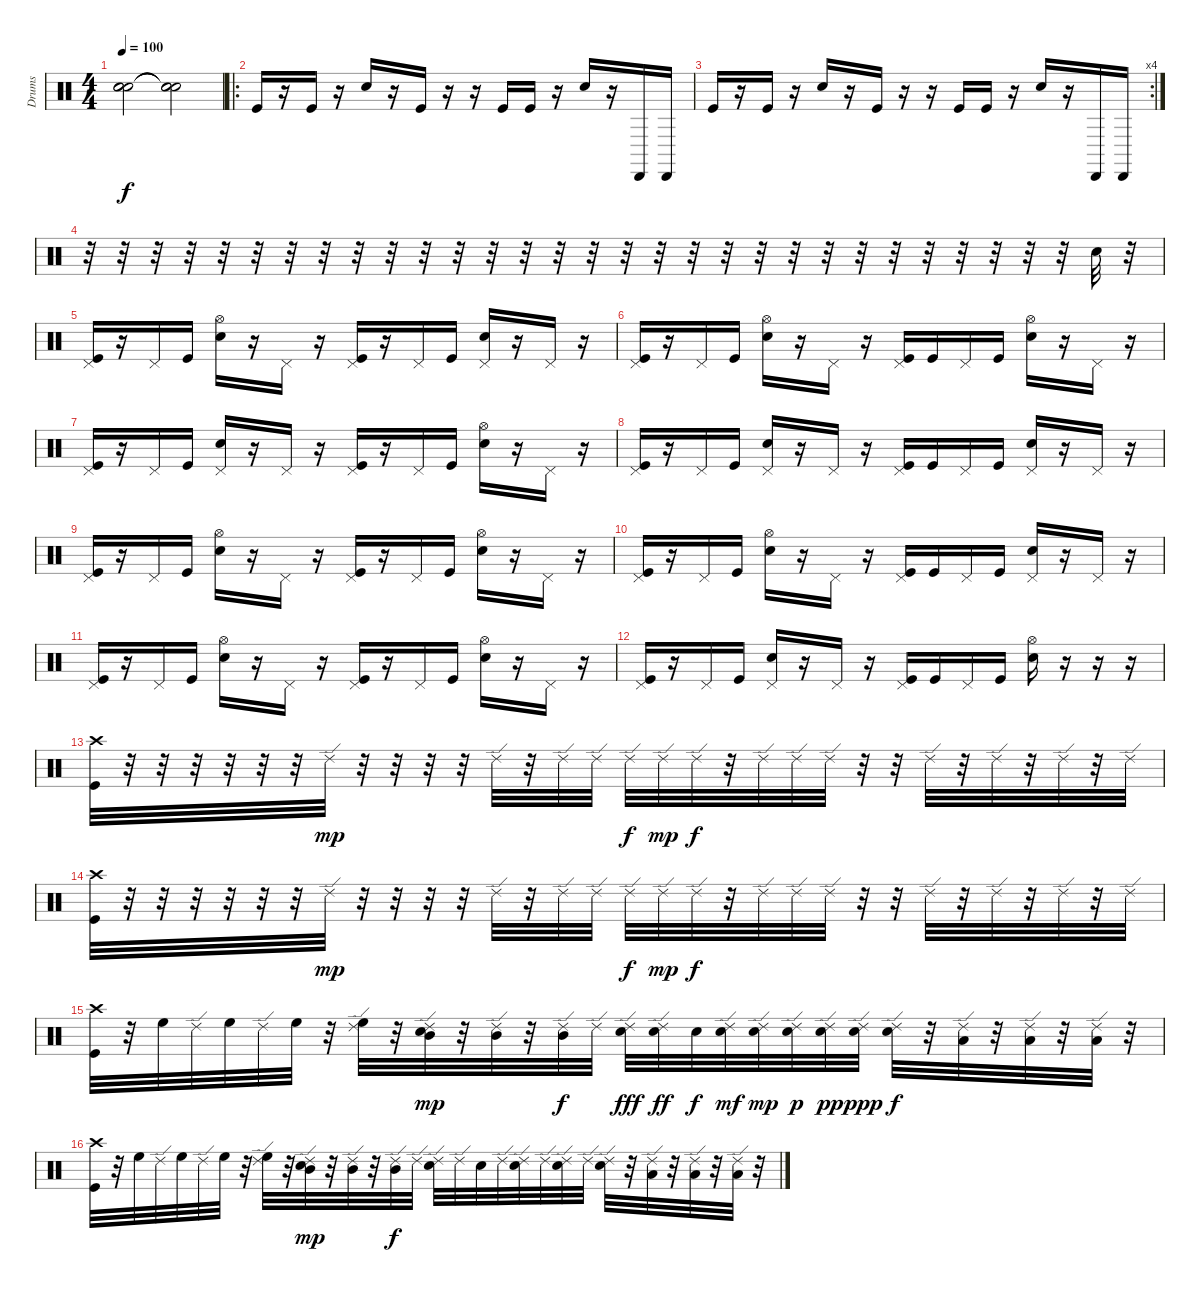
\track ("Drums" "Drums") {instrument percussion}
\staff {score}
\articulation defaults
\ts (4 4)
\tempo 100
\clef neutral
\ks c
("Snare (hit)"{t} "Snare (hit)"{t} "Snare (hit)"{t}).2{dy f} ("Snare (hit)"{t} "Snare (hit)"{t} "Snare (hit)"{t}).2 |
\ro "Kick (hit)".16{volume 13}
r.16 "Kick (hit)".16 r.16 "Electric Snare (hit)".16 r.16 "Kick (hit)".16 r.16 r.16 "Kick (hit)".16 "Kick (hit)".16 r.16 "Electric Snare (hit)".16 r.16 "Cabasa (hit)".16 "Cabasa (hit)".16 |
\rc 4 "Kick (hit)".16
r.16 "Kick (hit)".16 r.16 "Electric Snare (hit)".16 r.16 "Kick (hit)".16 r.16 r.16 "Kick (hit)".16 "Kick (hit)".16 r.16 "Electric Snare (hit)".16 r.16 "Cabasa (hit)".16 "Cabasa (hit)".16 |
r.32 r.32 r.32 r.32 r.32 r.32 r.32 r.32 r.32 r.32 r.32 r.32 r.32 r.32 r.32 r.32 r.32 r.32 r.32 r.32 r.32 r.32 r.32 r.32 r.32 r.32 r.32 r.32 r.32 r.32 "Electric Snare (hit)".32 r.32 |
("Pedal Hi-Hat (hit)" "Kick (hit)").16 r.16 "Pedal Hi-Hat (hit)".16 "Kick (hit)".16 ("Hi-Hat (open)" "Electric Snare (hit)").16 r.16 "Pedal Hi-Hat (hit)".16 r.16 ("Pedal Hi-Hat (hit)" "Kick (hit)").16 r.16 "Pedal Hi-Hat (hit)".16 "Kick (hit)".16 ("Pedal Hi-Hat (hit)" "Electric Snare (hit)").16 r.16 "Pedal Hi-Hat (hit)".16 r.16 |
("Pedal Hi-Hat (hit)" "Kick (hit)").16 r.16 "Pedal Hi-Hat (hit)".16 "Kick (hit)".16 ("Hi-Hat (open)" "Electric Snare (hit)").16 r.16 "Pedal Hi-Hat (hit)".16 r.16 ("Pedal Hi-Hat (hit)" "Kick (hit)").16 "Kick (hit)".16 "Pedal Hi-Hat (hit)".16 "Kick (hit)".16 ("Hi-Hat (open)" "Electric Snare (hit)").16 r.16 "Pedal Hi-Hat (hit)".16 r.16 |
("Pedal Hi-Hat (hit)" "Kick (hit)").16 r.16 "Pedal Hi-Hat (hit)".16 "Kick (hit)".16 ("Pedal Hi-Hat (hit)" "Electric Snare (hit)").16 r.16 "Pedal Hi-Hat (hit)".16 r.16 ("Pedal Hi-Hat (hit)" "Kick (hit)").16 r.16 "Pedal Hi-Hat (hit)".16 "Kick (hit)".16 ("Hi-Hat (open)" "Electric Snare (hit)").16 r.16 "Pedal Hi-Hat (hit)".16 r.16 |
("Pedal Hi-Hat (hit)" "Kick (hit)").16 r.16 "Pedal Hi-Hat (hit)".16 "Kick (hit)".16 ("Pedal Hi-Hat (hit)" "Electric Snare (hit)").16 r.16 "Pedal Hi-Hat (hit)".16 r.16 ("Pedal Hi-Hat (hit)" "Kick (hit)").16 "Kick (hit)".16 "Pedal Hi-Hat (hit)".16 "Kick (hit)".16 ("Pedal Hi-Hat (hit)" "Electric Snare (hit)").16 r.16 "Pedal Hi-Hat (hit)".16 r.16 |
("Pedal Hi-Hat (hit)" "Kick (hit)").16 r.16 "Pedal Hi-Hat (hit)".16 "Kick (hit)".16 ("Hi-Hat (open)" "Electric Snare (hit)").16 r.16 "Pedal Hi-Hat (hit)".16 r.16 ("Pedal Hi-Hat (hit)" "Kick (hit)").16 r.16 "Pedal Hi-Hat (hit)".16 "Kick (hit)".16 ("Hi-Hat (open)" "Electric Snare (hit)").16 r.16 "Pedal Hi-Hat (hit)".16 r.16 |
("Pedal Hi-Hat (hit)" "Kick (hit)").16 r.16 "Pedal Hi-Hat (hit)".16 "Kick (hit)".16 ("Hi-Hat (open)" "Electric Snare (hit)").16 r.16 "Pedal Hi-Hat (hit)".16 r.16 ("Pedal Hi-Hat (hit)" "Kick (hit)").16 "Kick (hit)".16 "Pedal Hi-Hat (hit)".16 "Kick (hit)".16 ("Pedal Hi-Hat (hit)" "Electric Snare (hit)").16 r.16 "Pedal Hi-Hat (hit)".16 r.16 |
("Pedal Hi-Hat (hit)" "Kick (hit)").16 r.16 "Pedal Hi-Hat (hit)".16 "Kick (hit)".16 ("Hi-Hat (open)" "Electric Snare (hit)").16 r.16 "Pedal Hi-Hat (hit)".16 r.16 ("Pedal Hi-Hat (hit)" "Kick (hit)").16 r.16 "Pedal Hi-Hat (hit)".16 "Kick (hit)".16 ("Hi-Hat (open)" "Electric Snare (hit)").16 r.16 "Pedal Hi-Hat (hit)".16 r.16 |
("Pedal Hi-Hat (hit)" "Kick (hit)").16 r.16 "Pedal Hi-Hat (hit)".16 "Kick (hit)".16 ("Pedal Hi-Hat (hit)" "Electric Snare (hit)").16 r.16 "Pedal Hi-Hat (hit)".16 r.16 ("Pedal Hi-Hat (hit)" "Kick (hit)").16 "Kick (hit)".16 "Pedal Hi-Hat (hit)".16 "Kick (hit)".16 ("Hi-Hat (open)" "Electric Snare (hit)").16 r.16 r.16 r.16 |
("Crash high (hit)" "Kick (hit)").32{volume 9} r.32 r.32 r.32 r.32 r.32 r.32 "Ride (edge) 2".32{dy mp} r.32 r.32 r.32 r.32 "Ride (edge) 2".32 r.32 "Ride (edge) 2".32 "Ride (edge) 2".32 "Ride (edge) 2".32{dy f} "Ride (edge) 2".32{dy mp} "Ride (edge) 2".32{dy f} r.32 "Ride (edge) 2".32 "Ride (edge) 2".32 "Ride (edge) 2".32 r.32 r.32 "Ride (edge) 2".32 r.32 "Ride (edge) 2".32 r.32 "Ride (edge) 2".32 r.32 "Ride (edge) 2".32 |
("Crash high (hit)" "Kick (hit)").32 r.32 r.32 r.32 r.32 r.32 r.32 "Ride (edge) 2".32{dy mp} r.32 r.32 r.32 r.32 "Ride (edge) 2".32 r.32 "Ride (edge) 2".32 "Ride (edge) 2".32 "Ride (edge) 2".32{dy f} "Ride (edge) 2".32{dy mp} "Ride (edge) 2".32{dy f} r.32 "Ride (edge) 2".32 "Ride (edge) 2".32 "Ride (edge) 2".32 r.32 r.32 "Ride (edge) 2".32 r.32 "Ride (edge) 2".32 r.32 "Ride (edge) 2".32 r.32 "Ride (edge) 2".32 |
("Crash high (hit)" "Kick (hit)").32 r.32 "High Floor Tom (hit)".32 "Ride (edge) 2".32 "High Floor Tom (hit)".32 "Ride (edge) 2".32 "High Floor Tom (hit)".32 r.32 ("Ride (edge) 2" "High Floor Tom (hit)").32 r.32 ("Ride (edge) 2" "Electric Snare (hit)" "Mid Tom (hit)").32{dy mp} r.32 ("Ride (edge) 2" "Mid Tom (hit)").32 r.32 ("Ride (edge) 2" "Mid Tom (hit)").32{dy f} "Ride (edge) 2".32 ("Ride (edge) 2" "Electric Snare (hit)").32{dy fff} ("Ride (edge) 2" "Electric Snare (hit)").32{dy ff} "Electric Snare (hit)".32{dy f} ("Ride (edge) 2" "Electric Snare (hit)").32{dy mf} ("Ride (edge) 2" "Electric Snare (hit)").32{dy mp} ("Ride (edge) 2" "Electric Snare (hit)").32{dy p} ("Ride (edge) 2" "Electric Snare (hit)").32{dy pp} ("Ride (edge) 2" "Electric Snare (hit)").32{dy ppp} ("Ride (edge) 2" "Electric Snare (hit)").32{dy f} r.32 ("Ride (edge) 2" "Low Tom (hit)").32 r.32 ("Ride (edge) 2" "Low Tom (hit)").32 r.32 ("Ride (edge) 2" "Low Tom (hit)").32 r.32 |
("Crash high (hit)" "Kick (hit)").32 r.32 "High Floor Tom (hit)".32 "Ride (edge) 2".32 "High Floor Tom (hit)".32 "Ride (edge) 2".32 "High Floor Tom (hit)".32 r.32 ("Ride (edge) 2" "High Floor Tom (hit)").32 r.32 ("Ride (edge) 2" "Electric Snare (hit)" "Mid Tom (hit)").32{dy mp} r.32 ("Ride (edge) 2" "Mid Tom (hit)").32 r.32 ("Ride (edge) 2" "Mid Tom (hit)").32{dy f} "Ride (edge) 2".32 ("Ride (edge) 2" "Electric Snare (hit)").32 "Ride (edge) 2".32 "Electric Snare (hit)".32 "Ride (edge) 2".32 ("Ride (edge) 2" "Electric Snare (hit)").32 "Ride (edge) 2".32 ("Ride (edge) 2" "Electric Snare (hit)").32 "Ride (edge) 2".32 ("Ride (edge) 2" "Electric Snare (hit)").32 r.32 ("Ride (edge) 2" "Low Tom (hit)").32 r.32 ("Ride (edge) 2" "Low Tom (hit)").32 r.32 ("Ride (edge) 2" "Low Tom (hit)").32 r.32
